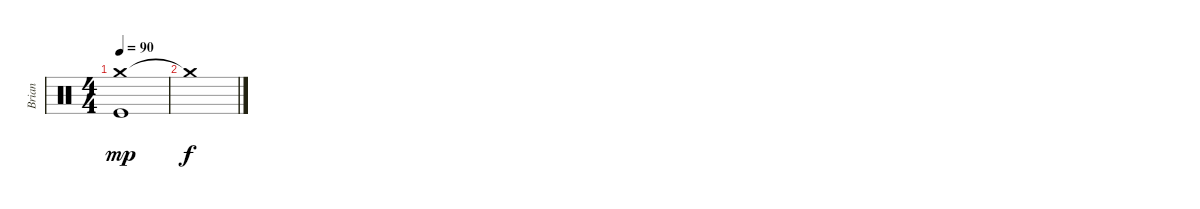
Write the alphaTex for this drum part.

\track ("Brian" "Brian") {instrument percussion}
\staff {score}
\articulation defaults
\ts (4 4)
\tempo 90
\clef neutral
\ks c
("Crash medium (hit)" "Kick (hit)").1{dy mp} |
"Crash medium (hit)"{t}.1{dy f}
